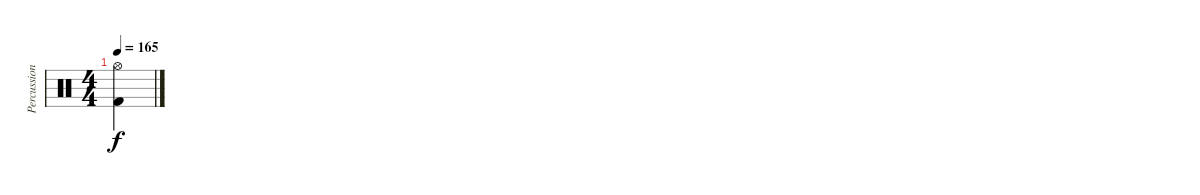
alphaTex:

\track ("Percussion" "Percussion") {instrument percussion}
\staff {score}
\articulation defaults
\ts (4 4)
\tempo 165
\clef neutral
\ks c
("Hi-Hat (open)" "Kick (hit) 2").4{dy f}
